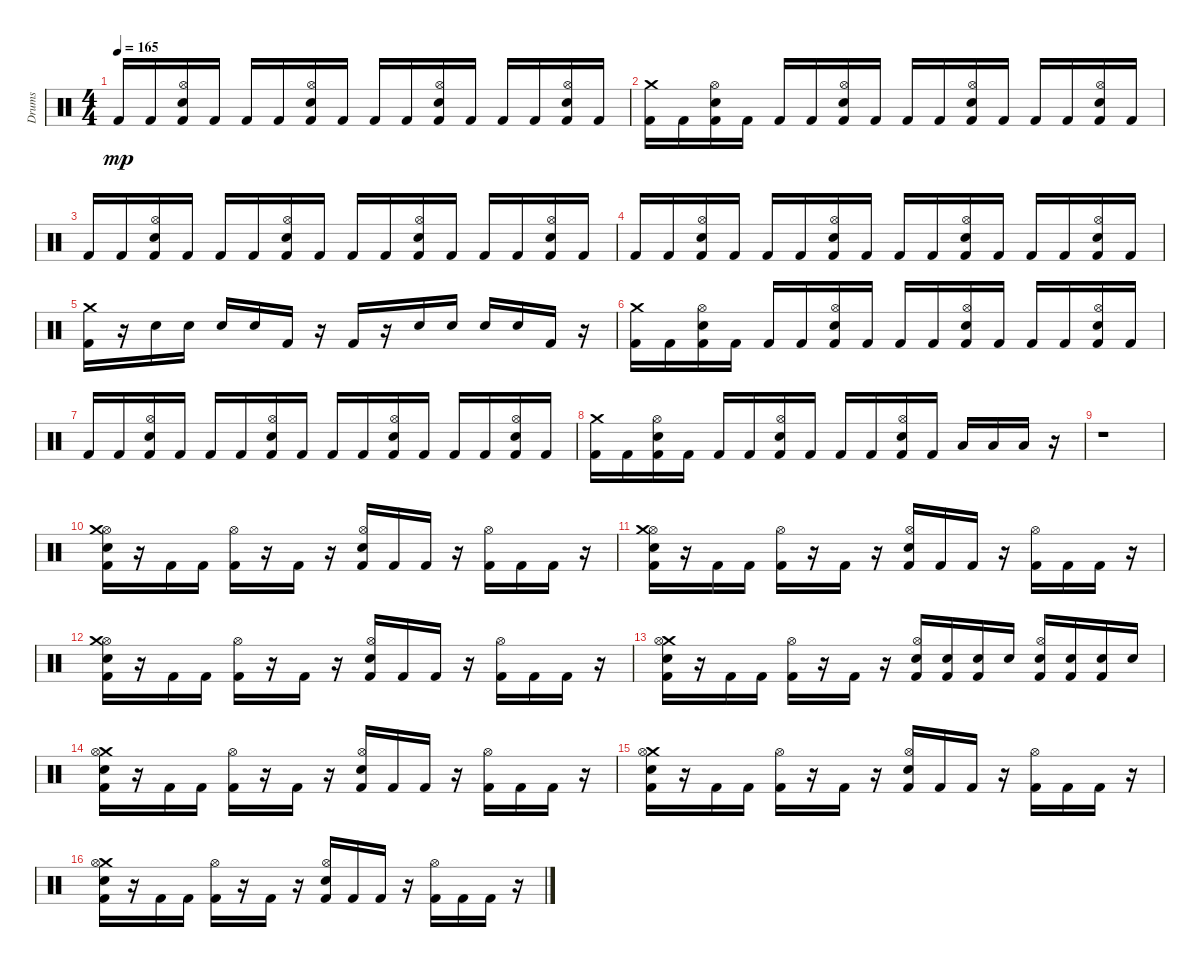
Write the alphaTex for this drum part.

\track ("Drums" "Drums") {instrument percussion}
\staff {score}
\articulation defaults
\ts (4 4)
\tempo 165
\clef neutral
\ks c "Kick (hit) 2".16{dy mp} "Kick (hit) 2".16
("Hi-Hat (open)" "Electric Snare (hit)" "Kick (hit) 2").16 "Kick (hit) 2".16 "Kick (hit) 2".16 "Kick (hit) 2".16 ("Electric Snare (hit)" "Kick (hit) 2" "Hi-Hat (open)").16 "Kick (hit) 2".16 "Kick (hit) 2".16 "Kick (hit) 2".16 ("Kick (hit) 2" "Hi-Hat (open)" "Electric Snare (hit)").16 "Kick (hit) 2".16 "Kick (hit) 2".16 "Kick (hit) 2".16 ("Kick (hit) 2" "Electric Snare (hit)" "Hi-Hat (open)").16 "Kick (hit) 2".16 |
("Crash medium (hit)" "Kick (hit) 2").16 "Kick (hit) 2".16 ("Hi-Hat (open)" "Electric Snare (hit)" "Kick (hit) 2").16 "Kick (hit) 2".16 "Kick (hit) 2".16 "Kick (hit) 2".16 ("Hi-Hat (open)" "Kick (hit) 2" "Electric Snare (hit)").16 "Kick (hit) 2".16 "Kick (hit) 2".16 "Kick (hit) 2".16 ("Hi-Hat (open)" "Electric Snare (hit)" "Kick (hit) 2").16 "Kick (hit) 2".16 "Kick (hit) 2".16 "Kick (hit) 2".16 ("Electric Snare (hit)" "Hi-Hat (open)" "Kick (hit) 2").16 "Kick (hit) 2".16 |
"Kick (hit) 2".16 "Kick (hit) 2".16 ("Kick (hit) 2" "Hi-Hat (open)" "Electric Snare (hit)").16 "Kick (hit) 2".16 "Kick (hit) 2".16 "Kick (hit) 2".16 ("Electric Snare (hit)" "Hi-Hat (open)" "Kick (hit) 2").16 "Kick (hit) 2".16 "Kick (hit) 2".16 "Kick (hit) 2".16 ("Kick (hit) 2" "Electric Snare (hit)" "Hi-Hat (open)").16 "Kick (hit) 2".16 "Kick (hit) 2".16 "Kick (hit) 2".16 ("Hi-Hat (open)" "Electric Snare (hit)" "Kick (hit) 2").16 "Kick (hit) 2".16 |
"Kick (hit) 2".16 "Kick (hit) 2".16 ("Hi-Hat (open)" "Electric Snare (hit)" "Kick (hit) 2").16 "Kick (hit) 2".16 "Kick (hit) 2".16 "Kick (hit) 2".16 ("Kick (hit) 2" "Hi-Hat (open)" "Electric Snare (hit)").16 "Kick (hit) 2".16 "Kick (hit) 2".16 "Kick (hit) 2".16 ("Electric Snare (hit)" "Kick (hit) 2" "Hi-Hat (open)").16 "Kick (hit) 2".16 "Kick (hit) 2".16 "Kick (hit) 2".16 ("Hi-Hat (open)" "Electric Snare (hit)" "Kick (hit) 2").16 "Kick (hit) 2".16 |
("Kick (hit) 2" "Crash medium (hit)").16 r.16 "Electric Snare (hit)".16 "Electric Snare (hit)".16 "Electric Snare (hit)".16 "Electric Snare (hit)".16 "Kick (hit) 2".16 r.16 "Kick (hit) 2".16 r.16 "Electric Snare (hit)".16 "Electric Snare (hit)".16 "Electric Snare (hit)".16 "Electric Snare (hit)".16 "Kick (hit) 2".16 r.16 |
("Kick (hit) 2" "Crash medium (hit)").16 "Kick (hit) 2".16 ("Kick (hit) 2" "Electric Snare (hit)" "Hi-Hat (open)").16 "Kick (hit) 2".16 "Kick (hit) 2".16 "Kick (hit) 2".16 ("Electric Snare (hit)" "Kick (hit) 2" "Hi-Hat (open)").16 "Kick (hit) 2".16 "Kick (hit) 2".16 "Kick (hit) 2".16 ("Kick (hit) 2" "Hi-Hat (open)" "Electric Snare (hit)").16 "Kick (hit) 2".16 "Kick (hit) 2".16 "Kick (hit) 2".16 ("Electric Snare (hit)" "Hi-Hat (open)" "Kick (hit) 2").16 "Kick (hit) 2".16 |
"Kick (hit) 2".16 "Kick (hit) 2".16 ("Hi-Hat (open)" "Electric Snare (hit)" "Kick (hit) 2").16 "Kick (hit) 2".16 "Kick (hit) 2".16 "Kick (hit) 2".16 ("Kick (hit) 2" "Electric Snare (hit)" "Hi-Hat (open)").16 "Kick (hit) 2".16 "Kick (hit) 2".16 "Kick (hit) 2".16 ("Kick (hit) 2" "Electric Snare (hit)" "Hi-Hat (open)").16 "Kick (hit) 2".16 "Kick (hit) 2".16 "Kick (hit) 2".16 ("Electric Snare (hit)" "Kick (hit) 2" "Hi-Hat (open)").16 "Kick (hit) 2".16 |
("Kick (hit) 2" "Crash medium (hit)").16 "Kick (hit) 2".16 ("Hi-Hat (open)" "Kick (hit) 2" "Electric Snare (hit)").16 "Kick (hit) 2".16 "Kick (hit) 2".16 "Kick (hit) 2".16 ("Hi-Hat (open)" "Kick (hit) 2" "Electric Snare (hit)").16 "Kick (hit) 2".16 "Kick (hit) 2".16 "Kick (hit) 2".16 ("Kick (hit) 2" "Hi-Hat (open)" "Electric Snare (hit)").16 "Kick (hit) 2".16 "Low Tom (hit)".16 "Low Tom (hit)".16 "Low Floor Tom (hit)".16 r.16 |
r.1 |
("Hi-Hat (open)" "Kick (hit) 2" "Electric Snare (hit)" "Crash medium (hit)").16 r.16 "Kick (hit) 2".16 "Kick (hit) 2".16 ("Hi-Hat (open)" "Kick (hit) 2").16 r.16 "Kick (hit) 2".16 r.16 ("Hi-Hat (open)" "Kick (hit) 2" "Electric Snare (hit)").16 "Kick (hit) 2".16 "Kick (hit) 2".16 r.16 ("Kick (hit) 2" "Hi-Hat (open)").16 "Kick (hit) 2".16 "Kick (hit) 2".16 r.16 |
("Kick (hit) 2" "Hi-Hat (open)" "Crash medium (hit)" "Electric Snare (hit)").16 r.16 "Kick (hit) 2".16 "Kick (hit) 2".16 ("Hi-Hat (open)" "Kick (hit) 2").16 r.16 "Kick (hit) 2".16 r.16 ("Electric Snare (hit)" "Kick (hit) 2" "Hi-Hat (open)").16 "Kick (hit) 2".16 "Kick (hit) 2".16 r.16 ("Hi-Hat (open)" "Kick (hit) 2").16 "Kick (hit) 2".16 "Kick (hit) 2".16 r.16 |
("Kick (hit) 2" "Electric Snare (hit)" "Hi-Hat (open)" "Crash medium (hit)").16 r.16 "Kick (hit) 2".16 "Kick (hit) 2".16 ("Hi-Hat (open)" "Kick (hit) 2").16 r.16 "Kick (hit) 2".16 r.16 ("Kick (hit) 2" "Hi-Hat (open)" "Electric Snare (hit)").16 "Kick (hit) 2".16 "Kick (hit) 2".16 r.16 ("Hi-Hat (open)" "Kick (hit) 2").16 "Kick (hit) 2".16 "Kick (hit) 2".16 r.16 |
("Kick (hit) 2" "Electric Snare (hit)" "Crash medium (hit)" "Hi-Hat (open)").16 r.16 "Kick (hit) 2".16 "Kick (hit) 2".16 ("Kick (hit) 2" "Hi-Hat (open)").16 r.16 "Kick (hit) 2".16 r.16 ("Hi-Hat (open)" "Kick (hit) 2" "Electric Snare (hit)").16 ("Kick (hit) 2" "Electric Snare (hit)").16 ("Electric Snare (hit)" "Kick (hit) 2").16 "Electric Snare (hit)".16 ("Electric Snare (hit)" "Hi-Hat (open)" "Kick (hit) 2").16 ("Kick (hit) 2" "Electric Snare (hit)").16 ("Kick (hit) 2" "Electric Snare (hit)").16 "Electric Snare (hit)".16 |
("Crash medium (hit)" "Hi-Hat (open)" "Electric Snare (hit)" "Kick (hit) 2").16 r.16 "Kick (hit) 2".16 "Kick (hit) 2".16 ("Kick (hit) 2" "Hi-Hat (open)").16 r.16 "Kick (hit) 2".16 r.16 ("Hi-Hat (open)" "Electric Snare (hit)" "Kick (hit) 2").16 "Kick (hit) 2".16 "Kick (hit) 2".16 r.16 ("Kick (hit) 2" "Hi-Hat (open)").16 "Kick (hit) 2".16 "Kick (hit) 2".16 r.16 |
("Crash medium (hit)" "Kick (hit) 2" "Electric Snare (hit)" "Hi-Hat (open)").16 r.16 "Kick (hit) 2".16 "Kick (hit) 2".16 ("Hi-Hat (open)" "Kick (hit) 2").16 r.16 "Kick (hit) 2".16 r.16 ("Kick (hit) 2" "Hi-Hat (open)" "Electric Snare (hit)").16 "Kick (hit) 2".16 "Kick (hit) 2".16 r.16 ("Kick (hit) 2" "Hi-Hat (open)").16 "Kick (hit) 2".16 "Kick (hit) 2".16 r.16 |
("Kick (hit) 2" "Electric Snare (hit)" "Crash medium (hit)" "Hi-Hat (open)").16 r.16 "Kick (hit) 2".16 "Kick (hit) 2".16 ("Kick (hit) 2" "Hi-Hat (open)").16 r.16 "Kick (hit) 2".16 r.16 ("Kick (hit) 2" "Electric Snare (hit)" "Hi-Hat (open)").16 "Kick (hit) 2".16 "Kick (hit) 2".16 r.16 ("Kick (hit) 2" "Hi-Hat (open)").16 "Kick (hit) 2".16 "Kick (hit) 2".16 r.16
